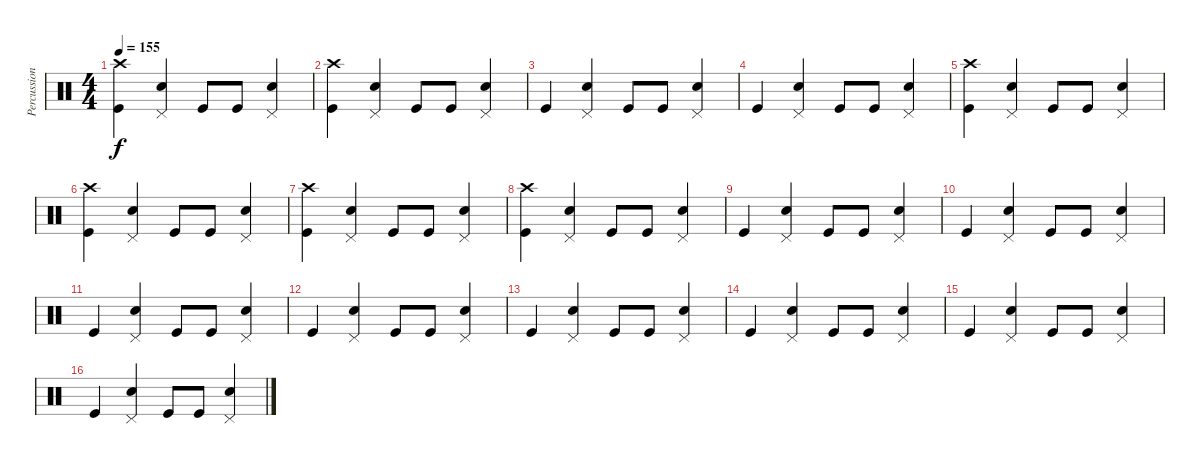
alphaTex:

\track ("Percussion" "Percussion") {instrument percussion}
\staff {score}
\articulation defaults
\ts (4 4)
\tempo 155
\clef neutral
\ks c
("Kick (hit)" "Crash high (hit)").4{dy f} ("Snare (hit) 2" "Pedal Hi-Hat (hit)").4 "Kick (hit)".8 "Kick (hit)".8 ("Snare (hit) 2" "Pedal Hi-Hat (hit)").4 |
("Kick (hit)" "Crash high (hit)").4 ("Snare (hit) 2" "Pedal Hi-Hat (hit)").4 "Kick (hit)".8 "Kick (hit)".8 ("Snare (hit) 2" "Pedal Hi-Hat (hit)").4 |
"Kick (hit)".4 ("Snare (hit) 2" "Pedal Hi-Hat (hit)").4 "Kick (hit)".8 "Kick (hit)".8 ("Snare (hit) 2" "Pedal Hi-Hat (hit)").4 |
"Kick (hit)".4 ("Snare (hit) 2" "Pedal Hi-Hat (hit)").4 "Kick (hit)".8 "Kick (hit)".8 ("Snare (hit) 2" "Pedal Hi-Hat (hit)").4 |
("Kick (hit)" "Crash high (hit)").4 ("Snare (hit) 2" "Pedal Hi-Hat (hit)").4 "Kick (hit)".8 "Kick (hit)".8 ("Snare (hit) 2" "Pedal Hi-Hat (hit)").4 |
("Kick (hit)" "Crash high (hit)").4 ("Snare (hit) 2" "Pedal Hi-Hat (hit)").4 "Kick (hit)".8 "Kick (hit)".8 ("Snare (hit) 2" "Pedal Hi-Hat (hit)").4 |
("Kick (hit)" "Crash high (hit)").4 ("Snare (hit) 2" "Pedal Hi-Hat (hit)").4 "Kick (hit)".8 "Kick (hit)".8 ("Snare (hit) 2" "Pedal Hi-Hat (hit)").4 |
("Kick (hit)" "Crash high (hit)").4 ("Snare (hit) 2" "Pedal Hi-Hat (hit)").4 "Kick (hit)".8 "Kick (hit)".8 ("Snare (hit) 2" "Pedal Hi-Hat (hit)").4 |
"Kick (hit)".4 ("Snare (hit) 2" "Pedal Hi-Hat (hit)").4 "Kick (hit)".8 "Kick (hit)".8 ("Snare (hit) 2" "Pedal Hi-Hat (hit)").4 |
"Kick (hit)".4 ("Snare (hit) 2" "Pedal Hi-Hat (hit)").4 "Kick (hit)".8 "Kick (hit)".8 ("Snare (hit) 2" "Pedal Hi-Hat (hit)").4 |
"Kick (hit)".4 ("Snare (hit) 2" "Pedal Hi-Hat (hit)").4 "Kick (hit)".8 "Kick (hit)".8 ("Snare (hit) 2" "Pedal Hi-Hat (hit)").4 |
"Kick (hit)".4 ("Snare (hit) 2" "Pedal Hi-Hat (hit)").4 "Kick (hit)".8 "Kick (hit)".8 ("Snare (hit) 2" "Pedal Hi-Hat (hit)").4 |
"Kick (hit)".4 ("Snare (hit) 2" "Pedal Hi-Hat (hit)").4 "Kick (hit)".8 "Kick (hit)".8 ("Snare (hit) 2" "Pedal Hi-Hat (hit)").4 |
"Kick (hit)".4 ("Snare (hit) 2" "Pedal Hi-Hat (hit)").4 "Kick (hit)".8 "Kick (hit)".8 ("Snare (hit) 2" "Pedal Hi-Hat (hit)").4 |
"Kick (hit)".4 ("Snare (hit) 2" "Pedal Hi-Hat (hit)").4 "Kick (hit)".8 "Kick (hit)".8 ("Snare (hit) 2" "Pedal Hi-Hat (hit)").4 |
"Kick (hit)".4 ("Snare (hit) 2" "Pedal Hi-Hat (hit)").4 "Kick (hit)".8 "Kick (hit)".8 ("Snare (hit) 2" "Pedal Hi-Hat (hit)").4
